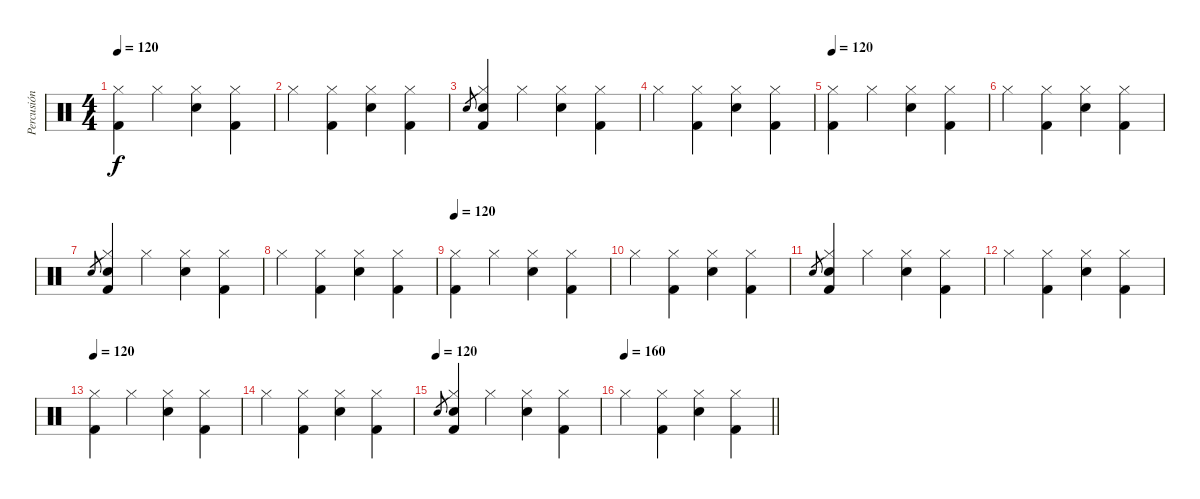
\track ("Percusión (Nevi)" "Percusión ") {instrument percussion}
\staff {score}
\articulation defaults
\ts (4 4)
\tempo 120
\clef neutral
\ks c
("Kick (hit) 2" "Hi-Hat (closed)").4{dy f} "Hi-Hat (closed)".4 ("Hi-Hat (closed)" "Snare (hit) 2").4 ("Kick (hit) 2" "Hi-Hat (closed)").4 |
"Hi-Hat (closed)".4 ("Kick (hit) 2" "Hi-Hat (closed)").4 ("Hi-Hat (closed)" "Snare (hit) 2").4 ("Kick (hit) 2" "Hi-Hat (closed)").4 |
"Snare (hit) 2".8{gr} ("Kick (hit) 2" "Hi-Hat (closed)" "Snare (hit) 2").4 "Hi-Hat (closed)".4 ("Hi-Hat (closed)" "Snare (hit) 2").4 ("Kick (hit) 2" "Hi-Hat (closed)").4 |
"Hi-Hat (closed)".4 ("Kick (hit) 2" "Hi-Hat (closed)").4 ("Hi-Hat (closed)" "Snare (hit) 2").4 ("Kick (hit) 2" "Hi-Hat (closed)").4 |
\tempo 120
("Kick (hit) 2" "Hi-Hat (closed)").4 "Hi-Hat (closed)".4 ("Hi-Hat (closed)" "Snare (hit) 2").4 ("Kick (hit) 2" "Hi-Hat (closed)").4 |
"Hi-Hat (closed)".4 ("Kick (hit) 2" "Hi-Hat (closed)").4 ("Hi-Hat (closed)" "Snare (hit) 2").4 ("Kick (hit) 2" "Hi-Hat (closed)").4 |
"Snare (hit) 2".8{gr} ("Kick (hit) 2" "Hi-Hat (closed)" "Snare (hit) 2").4 "Hi-Hat (closed)".4 ("Hi-Hat (closed)" "Snare (hit) 2").4 ("Kick (hit) 2" "Hi-Hat (closed)").4 |
"Hi-Hat (closed)".4 ("Kick (hit) 2" "Hi-Hat (closed)").4 ("Hi-Hat (closed)" "Snare (hit) 2").4 ("Kick (hit) 2" "Hi-Hat (closed)").4 |
\tempo 120
("Kick (hit) 2" "Hi-Hat (closed)").4 "Hi-Hat (closed)".4 ("Hi-Hat (closed)" "Snare (hit) 2").4 ("Kick (hit) 2" "Hi-Hat (closed)").4 |
"Hi-Hat (closed)".4 ("Kick (hit) 2" "Hi-Hat (closed)").4 ("Hi-Hat (closed)" "Snare (hit) 2").4 ("Kick (hit) 2" "Hi-Hat (closed)").4 |
"Snare (hit) 2".8{gr} ("Kick (hit) 2" "Hi-Hat (closed)" "Snare (hit) 2").4 "Hi-Hat (closed)".4 ("Hi-Hat (closed)" "Snare (hit) 2").4 ("Kick (hit) 2" "Hi-Hat (closed)").4 |
"Hi-Hat (closed)".4 ("Kick (hit) 2" "Hi-Hat (closed)").4 ("Hi-Hat (closed)" "Snare (hit) 2").4 ("Kick (hit) 2" "Hi-Hat (closed)").4 |
\tempo 120
("Kick (hit) 2" "Hi-Hat (closed)").4 "Hi-Hat (closed)".4 ("Hi-Hat (closed)" "Snare (hit) 2").4 ("Kick (hit) 2" "Hi-Hat (closed)").4 |
"Hi-Hat (closed)".4 ("Kick (hit) 2" "Hi-Hat (closed)").4 ("Hi-Hat (closed)" "Snare (hit) 2").4 ("Kick (hit) 2" "Hi-Hat (closed)").4 |
\tempo (120)
"Snare (hit) 2".8{gr} ("Kick (hit) 2" "Hi-Hat (closed)" "Snare (hit) 2").4 "Hi-Hat (closed)".4 ("Hi-Hat (closed)" "Snare (hit) 2").4 ("Kick (hit) 2" "Hi-Hat (closed)").4 |
\tempo 160
\barLineRight lightlight "Hi-Hat (closed)".4
("Kick (hit) 2" "Hi-Hat (closed)").4 ("Hi-Hat (closed)" "Snare (hit) 2").4 ("Kick (hit) 2" "Hi-Hat (closed)").4
